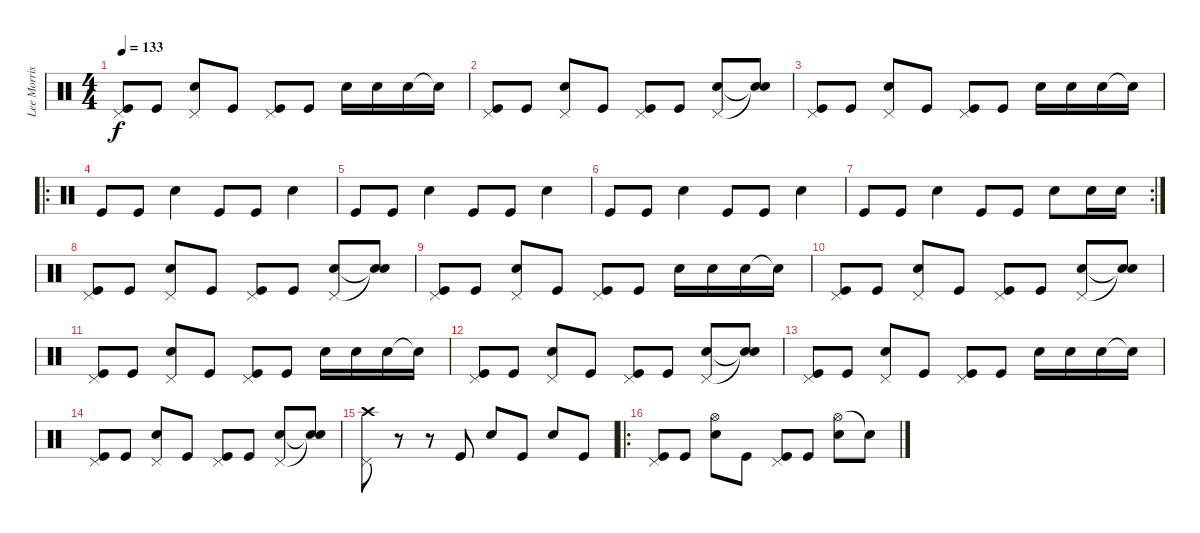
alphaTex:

\track ("Lee Morris" "Lee Morris") {instrument percussion}
\staff {score}
\articulation defaults
\ts (4 4)
\tempo 133
\clef neutral
\ks c
("Pedal Hi-Hat (hit)" "Kick (hit)").8{dy f} "Kick (hit)".8 ("Electric Snare (hit)" "Pedal Hi-Hat (hit)").8 "Kick (hit)".8 ("Pedal Hi-Hat (hit)" "Kick (hit)").8 "Kick (hit)".8 "Electric Snare (hit)".16 "Electric Snare (hit)".16 "Electric Snare (hit)".16 "Snare (hit)"{t}.16 |
("Pedal Hi-Hat (hit)" "Kick (hit)").8 "Kick (hit)".8 ("Electric Snare (hit)" "Pedal Hi-Hat (hit)").8 "Kick (hit)".8 ("Pedal Hi-Hat (hit)" "Kick (hit)").8 "Kick (hit)".8 ("Electric Snare (hit)" "Pedal Hi-Hat (hit)").8 ("Snare (hit)"{t} "Snare (hit)"{t}).8 |
("Pedal Hi-Hat (hit)" "Kick (hit)").8 "Kick (hit)".8 ("Electric Snare (hit)" "Pedal Hi-Hat (hit)").8 "Kick (hit)".8 ("Pedal Hi-Hat (hit)" "Kick (hit)").8 "Kick (hit)".8 "Electric Snare (hit)".16 "Electric Snare (hit)".16 "Electric Snare (hit)".16 "Snare (hit)"{t}.16 |
\ro "Kick (hit)".8 "Kick (hit)".8 "Electric Snare (hit)".4 "Kick (hit)".8 "Kick (hit)".8 "Electric Snare (hit)".4
|
"Kick (hit)".8 "Kick (hit)".8 "Electric Snare (hit)".4 "Kick (hit)".8 "Kick (hit)".8 "Electric Snare (hit)".4 |
"Kick (hit)".8 "Kick (hit)".8 "Electric Snare (hit)".4 "Kick (hit)".8 "Kick (hit)".8 "Electric Snare (hit)".4 |
\rc 2 "Kick (hit)".8 "Kick (hit)".8 "Electric Snare (hit)".4 "Kick (hit)".8 "Kick (hit)".8 "Electric Snare (hit)".8 "Electric Snare (hit)".16 "Electric Snare (hit)".16
|
("Pedal Hi-Hat (hit)" "Kick (hit)").8 "Kick (hit)".8 ("Electric Snare (hit)" "Pedal Hi-Hat (hit)").8 "Kick (hit)".8 ("Pedal Hi-Hat (hit)" "Kick (hit)").8 "Kick (hit)".8 ("Electric Snare (hit)" "Pedal Hi-Hat (hit)").8 ("Snare (hit)"{t} "Snare (hit)"{t}).8 |
("Pedal Hi-Hat (hit)" "Kick (hit)").8 "Kick (hit)".8 ("Electric Snare (hit)" "Pedal Hi-Hat (hit)").8 "Kick (hit)".8 ("Pedal Hi-Hat (hit)" "Kick (hit)").8 "Kick (hit)".8 "Electric Snare (hit)".16 "Electric Snare (hit)".16 "Electric Snare (hit)".16 "Snare (hit)"{t}.16 |
("Pedal Hi-Hat (hit)" "Kick (hit)").8 "Kick (hit)".8 ("Electric Snare (hit)" "Pedal Hi-Hat (hit)").8 "Kick (hit)".8 ("Pedal Hi-Hat (hit)" "Kick (hit)").8 "Kick (hit)".8 ("Electric Snare (hit)" "Pedal Hi-Hat (hit)").8 ("Snare (hit)"{t} "Snare (hit)"{t}).8 |
("Pedal Hi-Hat (hit)" "Kick (hit)").8 "Kick (hit)".8 ("Electric Snare (hit)" "Pedal Hi-Hat (hit)").8 "Kick (hit)".8 ("Pedal Hi-Hat (hit)" "Kick (hit)").8 "Kick (hit)".8 "Electric Snare (hit)".16 "Electric Snare (hit)".16 "Electric Snare (hit)".16 "Snare (hit)"{t}.16 |
("Pedal Hi-Hat (hit)" "Kick (hit)").8 "Kick (hit)".8 ("Electric Snare (hit)" "Pedal Hi-Hat (hit)").8 "Kick (hit)".8 ("Pedal Hi-Hat (hit)" "Kick (hit)").8 "Kick (hit)".8 ("Electric Snare (hit)" "Pedal Hi-Hat (hit)").8 ("Snare (hit)"{t} "Snare (hit)"{t}).8 |
("Pedal Hi-Hat (hit)" "Kick (hit)").8 "Kick (hit)".8 ("Electric Snare (hit)" "Pedal Hi-Hat (hit)").8 "Kick (hit)".8 ("Pedal Hi-Hat (hit)" "Kick (hit)").8 "Kick (hit)".8 "Electric Snare (hit)".16 "Electric Snare (hit)".16 "Electric Snare (hit)".16 "Snare (hit)"{t}.16 |
("Pedal Hi-Hat (hit)" "Kick (hit)").8 "Kick (hit)".8 ("Electric Snare (hit)" "Pedal Hi-Hat (hit)").8 "Kick (hit)".8 ("Pedal Hi-Hat (hit)" "Kick (hit)").8 "Kick (hit)".8 ("Electric Snare (hit)" "Pedal Hi-Hat (hit)").8 ("Snare (hit)"{t} "Snare (hit)"{t}).8 |
("Pedal Hi-Hat (hit)" "Crash high (hit)").8 r.8 r.8 "Kick (hit)".8 "Electric Snare (hit)".8 "Kick (hit)".8 "Electric Snare (hit)".8 "Kick (hit)".8 |
\ro
("Pedal Hi-Hat (hit)" "Kick (hit)").8 "Kick (hit)".8 ("Hi-Hat (open)" "Electric Snare (hit)").8 "Kick (hit)".8 ("Pedal Hi-Hat (hit)" "Kick (hit)").8 "Kick (hit)".8 ("Hi-Hat (open)" "Electric Snare (hit)").8 "Snare (hit)"{t}.8
